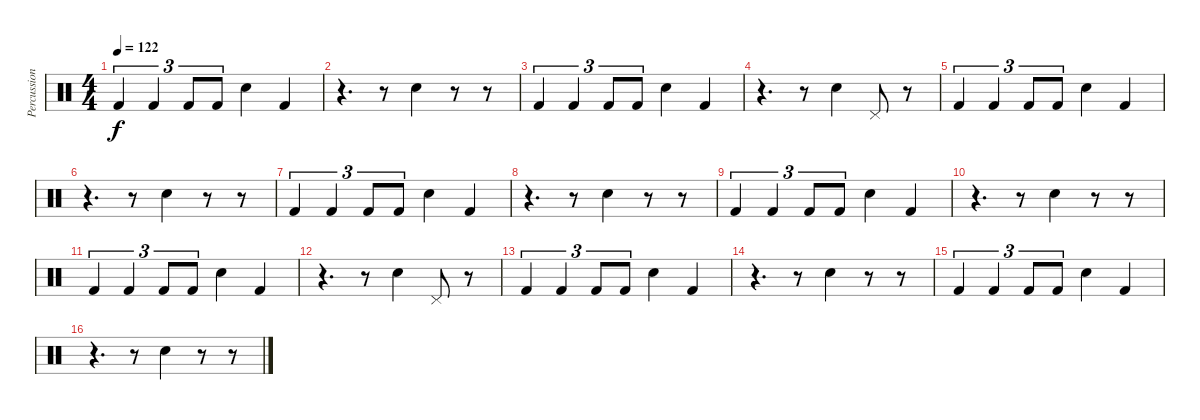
\track ("Percussions" "Percussion") {instrument percussion}
\staff {score}
\articulation defaults
\ts (4 4)
\tempo 122
\clef neutral
\ks c "Kick (hit) 2".4{tu (3 2) dy f} "Kick (hit) 2".4{tu (3 2)} "Kick (hit) 2".8{tu (3 2)} "Kick (hit) 2".8{tu (3 2)} "Electric Snare (hit)".4 "Kick (hit) 2".4
|
r.4{d} r.8 "Electric Snare (hit)".4 r.8 r.8 |
"Kick (hit) 2".4{tu (3 2)} "Kick (hit) 2".4{tu (3 2)} "Kick (hit) 2".8{tu (3 2)} "Kick (hit) 2".8{tu (3 2)} "Electric Snare (hit)".4 "Kick (hit) 2".4 |
r.4{d} r.8 "Electric Snare (hit)".4 "Pedal Hi-Hat (hit)".8 r.8 |
"Kick (hit) 2".4{tu (3 2)} "Kick (hit) 2".4{tu (3 2)} "Kick (hit) 2".8{tu (3 2)} "Kick (hit) 2".8{tu (3 2)} "Electric Snare (hit)".4 "Kick (hit) 2".4 |
r.4{d} r.8 "Electric Snare (hit)".4 r.8 r.8 |
"Kick (hit) 2".4{tu (3 2)} "Kick (hit) 2".4{tu (3 2)} "Kick (hit) 2".8{tu (3 2)} "Kick (hit) 2".8{tu (3 2)} "Electric Snare (hit)".4 "Kick (hit) 2".4 |
r.4{d} r.8 "Electric Snare (hit)".4 r.8 r.8 |
"Kick (hit) 2".4{tu (3 2)} "Kick (hit) 2".4{tu (3 2)} "Kick (hit) 2".8{tu (3 2)} "Kick (hit) 2".8{tu (3 2)} "Electric Snare (hit)".4 "Kick (hit) 2".4 |
r.4{d} r.8 "Electric Snare (hit)".4 r.8 r.8 |
"Kick (hit) 2".4{tu (3 2)} "Kick (hit) 2".4{tu (3 2)} "Kick (hit) 2".8{tu (3 2)} "Kick (hit) 2".8{tu (3 2)} "Electric Snare (hit)".4 "Kick (hit) 2".4 |
r.4{d} r.8 "Electric Snare (hit)".4 "Pedal Hi-Hat (hit)".8 r.8 |
"Kick (hit) 2".4{tu (3 2)} "Kick (hit) 2".4{tu (3 2)} "Kick (hit) 2".8{tu (3 2)} "Kick (hit) 2".8{tu (3 2)} "Electric Snare (hit)".4 "Kick (hit) 2".4 |
r.4{d} r.8 "Electric Snare (hit)".4 r.8 r.8 |
"Kick (hit) 2".4{tu (3 2)} "Kick (hit) 2".4{tu (3 2)} "Kick (hit) 2".8{tu (3 2)} "Kick (hit) 2".8{tu (3 2)} "Electric Snare (hit)".4 "Kick (hit) 2".4 |
r.4{d} r.8 "Electric Snare (hit)".4 r.8 r.8
